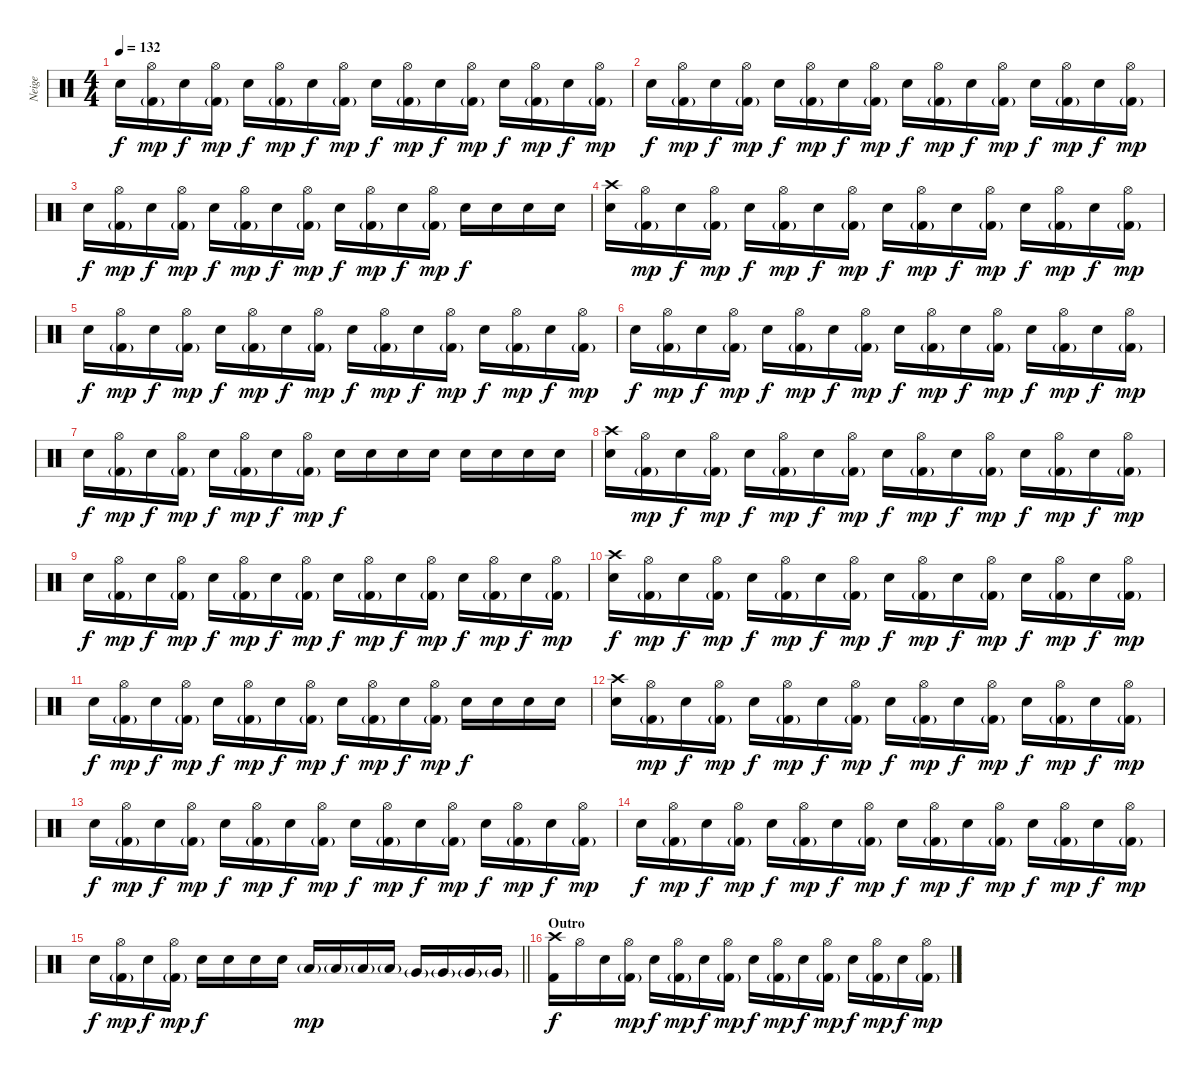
\track ("Neige" "Neige") {instrument percussion}
\staff {score}
\articulation defaults
\ts (4 4)
\tempo 132
\clef neutral
\ks c "Snare (hit) 2".16{dy f}
("Kick (hit) 2"{g} "Hi-Hat (open)").16{dy mp} "Snare (hit) 2".16{dy f} ("Kick (hit) 2"{g} "Hi-Hat (open)").16{dy mp} "Snare (hit) 2".16{dy f} ("Kick (hit) 2"{g} "Hi-Hat (open)").16{dy mp} "Snare (hit) 2".16{dy f} ("Kick (hit) 2"{g} "Hi-Hat (open)").16{dy mp} "Snare (hit) 2".16{dy f} ("Kick (hit) 2"{g} "Hi-Hat (open)").16{dy mp} "Snare (hit) 2".16{dy f} ("Kick (hit) 2"{g} "Hi-Hat (open)").16{dy mp} "Snare (hit) 2".16{dy f} ("Kick (hit) 2"{g} "Hi-Hat (open)").16{dy mp} "Snare (hit) 2".16{dy f} ("Kick (hit) 2"{g} "Hi-Hat (open)").16{dy mp} |
"Snare (hit) 2".16{dy f} ("Kick (hit) 2"{g} "Hi-Hat (open)").16{dy mp} "Snare (hit) 2".16{dy f} ("Kick (hit) 2"{g} "Hi-Hat (open)").16{dy mp} "Snare (hit) 2".16{dy f} ("Kick (hit) 2"{g} "Hi-Hat (open)").16{dy mp} "Snare (hit) 2".16{dy f} ("Kick (hit) 2"{g} "Hi-Hat (open)").16{dy mp} "Snare (hit) 2".16{dy f} ("Kick (hit) 2"{g} "Hi-Hat (open)").16{dy mp} "Snare (hit) 2".16{dy f} ("Kick (hit) 2"{g} "Hi-Hat (open)").16{dy mp} "Snare (hit) 2".16{dy f} ("Kick (hit) 2"{g} "Hi-Hat (open)").16{dy mp} "Snare (hit) 2".16{dy f} ("Kick (hit) 2"{g} "Hi-Hat (open)").16{dy mp} |
"Snare (hit) 2".16{dy f} ("Kick (hit) 2"{g} "Hi-Hat (open)").16{dy mp} "Snare (hit) 2".16{dy f} ("Kick (hit) 2"{g} "Hi-Hat (open)").16{dy mp} "Snare (hit) 2".16{dy f} ("Kick (hit) 2"{g} "Hi-Hat (open)").16{dy mp} "Snare (hit) 2".16{dy f} ("Kick (hit) 2"{g} "Hi-Hat (open)").16{dy mp} "Snare (hit) 2".16{dy f} ("Kick (hit) 2"{g} "Hi-Hat (open)").16{dy mp} "Snare (hit) 2".16{dy f} ("Kick (hit) 2"{g} "Hi-Hat (open)").16{dy mp} "Snare (hit) 2".16{dy f} "Snare (hit) 2".16 "Snare (hit) 2".16 "Snare (hit) 2".16 |
("Snare (hit) 2" "Crash high (hit)").16 ("Kick (hit) 2"{g} "Hi-Hat (open)").16{dy mp} "Snare (hit) 2".16{dy f} ("Kick (hit) 2"{g} "Hi-Hat (open)").16{dy mp} "Snare (hit) 2".16{dy f} ("Kick (hit) 2"{g} "Hi-Hat (open)").16{dy mp} "Snare (hit) 2".16{dy f} ("Kick (hit) 2"{g} "Hi-Hat (open)").16{dy mp} "Snare (hit) 2".16{dy f} ("Kick (hit) 2"{g} "Hi-Hat (open)").16{dy mp} "Snare (hit) 2".16{dy f} ("Kick (hit) 2"{g} "Hi-Hat (open)").16{dy mp} "Snare (hit) 2".16{dy f} ("Kick (hit) 2"{g} "Hi-Hat (open)").16{dy mp} "Snare (hit) 2".16{dy f} ("Kick (hit) 2"{g} "Hi-Hat (open)").16{dy mp} |
"Snare (hit) 2".16{dy f} ("Kick (hit) 2"{g} "Hi-Hat (open)").16{dy mp} "Snare (hit) 2".16{dy f} ("Kick (hit) 2"{g} "Hi-Hat (open)").16{dy mp} "Snare (hit) 2".16{dy f} ("Kick (hit) 2"{g} "Hi-Hat (open)").16{dy mp} "Snare (hit) 2".16{dy f} ("Kick (hit) 2"{g} "Hi-Hat (open)").16{dy mp} "Snare (hit) 2".16{dy f} ("Kick (hit) 2"{g} "Hi-Hat (open)").16{dy mp} "Snare (hit) 2".16{dy f} ("Kick (hit) 2"{g} "Hi-Hat (open)").16{dy mp} "Snare (hit) 2".16{dy f} ("Kick (hit) 2"{g} "Hi-Hat (open)").16{dy mp} "Snare (hit) 2".16{dy f} ("Kick (hit) 2"{g} "Hi-Hat (open)").16{dy mp} |
"Snare (hit) 2".16{dy f} ("Kick (hit) 2"{g} "Hi-Hat (open)").16{dy mp} "Snare (hit) 2".16{dy f} ("Kick (hit) 2"{g} "Hi-Hat (open)").16{dy mp} "Snare (hit) 2".16{dy f} ("Kick (hit) 2"{g} "Hi-Hat (open)").16{dy mp} "Snare (hit) 2".16{dy f} ("Kick (hit) 2"{g} "Hi-Hat (open)").16{dy mp} "Snare (hit) 2".16{dy f} ("Kick (hit) 2"{g} "Hi-Hat (open)").16{dy mp} "Snare (hit) 2".16{dy f} ("Kick (hit) 2"{g} "Hi-Hat (open)").16{dy mp} "Snare (hit) 2".16{dy f} ("Kick (hit) 2"{g} "Hi-Hat (open)").16{dy mp} "Snare (hit) 2".16{dy f} ("Kick (hit) 2"{g} "Hi-Hat (open)").16{dy mp} |
"Snare (hit) 2".16{dy f} ("Kick (hit) 2"{g} "Hi-Hat (open)").16{dy mp} "Snare (hit) 2".16{dy f} ("Kick (hit) 2"{g} "Hi-Hat (open)").16{dy mp} "Snare (hit) 2".16{dy f} ("Kick (hit) 2"{g} "Hi-Hat (open)").16{dy mp} "Snare (hit) 2".16{dy f} ("Kick (hit) 2"{g} "Hi-Hat (open)").16{dy mp} "Snare (hit) 2".16{dy f} "Snare (hit) 2".16 "Snare (hit) 2".16 "Snare (hit) 2".16 "Snare (hit) 2".16 "Snare (hit) 2".16 "Snare (hit) 2".16 "Snare (hit) 2".16 |
("Snare (hit) 2" "Crash high (hit)").16 ("Kick (hit) 2"{g} "Hi-Hat (open)").16{dy mp} "Snare (hit) 2".16{dy f} ("Kick (hit) 2"{g} "Hi-Hat (open)").16{dy mp} "Snare (hit) 2".16{dy f} ("Kick (hit) 2"{g} "Hi-Hat (open)").16{dy mp} "Snare (hit) 2".16{dy f} ("Kick (hit) 2"{g} "Hi-Hat (open)").16{dy mp} "Snare (hit) 2".16{dy f} ("Kick (hit) 2"{g} "Hi-Hat (open)").16{dy mp} "Snare (hit) 2".16{dy f} ("Kick (hit) 2"{g} "Hi-Hat (open)").16{dy mp} "Snare (hit) 2".16{dy f} ("Kick (hit) 2"{g} "Hi-Hat (open)").16{dy mp} "Snare (hit) 2".16{dy f} ("Kick (hit) 2"{g} "Hi-Hat (open)").16{dy mp} |
"Snare (hit) 2".16{dy f} ("Kick (hit) 2"{g} "Hi-Hat (open)").16{dy mp} "Snare (hit) 2".16{dy f} ("Kick (hit) 2"{g} "Hi-Hat (open)").16{dy mp} "Snare (hit) 2".16{dy f} ("Kick (hit) 2"{g} "Hi-Hat (open)").16{dy mp} "Snare (hit) 2".16{dy f} ("Kick (hit) 2"{g} "Hi-Hat (open)").16{dy mp} "Snare (hit) 2".16{dy f} ("Kick (hit) 2"{g} "Hi-Hat (open)").16{dy mp} "Snare (hit) 2".16{dy f} ("Kick (hit) 2"{g} "Hi-Hat (open)").16{dy mp} "Snare (hit) 2".16{dy f} ("Kick (hit) 2"{g} "Hi-Hat (open)").16{dy mp} "Snare (hit) 2".16{dy f} ("Kick (hit) 2"{g} "Hi-Hat (open)").16{dy mp} |
("Snare (hit) 2" "Crash high (hit)").16{dy f} ("Kick (hit) 2"{g} "Hi-Hat (open)").16{dy mp} "Snare (hit) 2".16{dy f} ("Kick (hit) 2"{g} "Hi-Hat (open)").16{dy mp} "Snare (hit) 2".16{dy f} ("Kick (hit) 2"{g} "Hi-Hat (open)").16{dy mp} "Snare (hit) 2".16{dy f} ("Kick (hit) 2"{g} "Hi-Hat (open)").16{dy mp} "Snare (hit) 2".16{dy f} ("Kick (hit) 2"{g} "Hi-Hat (open)").16{dy mp} "Snare (hit) 2".16{dy f} ("Kick (hit) 2"{g} "Hi-Hat (open)").16{dy mp} "Snare (hit) 2".16{dy f} ("Kick (hit) 2"{g} "Hi-Hat (open)").16{dy mp} "Snare (hit) 2".16{dy f} ("Kick (hit) 2"{g} "Hi-Hat (open)").16{dy mp} |
"Snare (hit) 2".16{dy f} ("Kick (hit) 2"{g} "Hi-Hat (open)").16{dy mp} "Snare (hit) 2".16{dy f} ("Kick (hit) 2"{g} "Hi-Hat (open)").16{dy mp} "Snare (hit) 2".16{dy f} ("Kick (hit) 2"{g} "Hi-Hat (open)").16{dy mp} "Snare (hit) 2".16{dy f} ("Kick (hit) 2"{g} "Hi-Hat (open)").16{dy mp} "Snare (hit) 2".16{dy f} ("Kick (hit) 2"{g} "Hi-Hat (open)").16{dy mp} "Snare (hit) 2".16{dy f} ("Kick (hit) 2"{g} "Hi-Hat (open)").16{dy mp} "Snare (hit) 2".16{dy f} "Snare (hit) 2".16 "Snare (hit) 2".16 "Snare (hit) 2".16 |
("Snare (hit) 2" "Crash high (hit)").16 ("Kick (hit) 2"{g} "Hi-Hat (open)").16{dy mp} "Snare (hit) 2".16{dy f} ("Kick (hit) 2"{g} "Hi-Hat (open)").16{dy mp} "Snare (hit) 2".16{dy f} ("Kick (hit) 2"{g} "Hi-Hat (open)").16{dy mp} "Snare (hit) 2".16{dy f} ("Kick (hit) 2"{g} "Hi-Hat (open)").16{dy mp} "Snare (hit) 2".16{dy f} ("Kick (hit) 2"{g} "Hi-Hat (open)").16{dy mp} "Snare (hit) 2".16{dy f} ("Kick (hit) 2"{g} "Hi-Hat (open)").16{dy mp} "Snare (hit) 2".16{dy f} ("Kick (hit) 2"{g} "Hi-Hat (open)").16{dy mp} "Snare (hit) 2".16{dy f} ("Kick (hit) 2"{g} "Hi-Hat (open)").16{dy mp} |
"Snare (hit) 2".16{dy f} ("Kick (hit) 2"{g} "Hi-Hat (open)").16{dy mp} "Snare (hit) 2".16{dy f} ("Kick (hit) 2"{g} "Hi-Hat (open)").16{dy mp} "Snare (hit) 2".16{dy f} ("Kick (hit) 2"{g} "Hi-Hat (open)").16{dy mp} "Snare (hit) 2".16{dy f} ("Kick (hit) 2"{g} "Hi-Hat (open)").16{dy mp} "Snare (hit) 2".16{dy f} ("Kick (hit) 2"{g} "Hi-Hat (open)").16{dy mp} "Snare (hit) 2".16{dy f} ("Kick (hit) 2"{g} "Hi-Hat (open)").16{dy mp} "Snare (hit) 2".16{dy f} ("Kick (hit) 2"{g} "Hi-Hat (open)").16{dy mp} "Snare (hit) 2".16{dy f} ("Kick (hit) 2"{g} "Hi-Hat (open)").16{dy mp} |
"Snare (hit) 2".16{dy f} ("Kick (hit) 2"{g} "Hi-Hat (open)").16{dy mp} "Snare (hit) 2".16{dy f} ("Kick (hit) 2"{g} "Hi-Hat (open)").16{dy mp} "Snare (hit) 2".16{dy f} ("Kick (hit) 2"{g} "Hi-Hat (open)").16{dy mp} "Snare (hit) 2".16{dy f} ("Kick (hit) 2"{g} "Hi-Hat (open)").16{dy mp} "Snare (hit) 2".16{dy f} ("Kick (hit) 2"{g} "Hi-Hat (open)").16{dy mp} "Snare (hit) 2".16{dy f} ("Kick (hit) 2"{g} "Hi-Hat (open)").16{dy mp} "Snare (hit) 2".16{dy f} ("Kick (hit) 2"{g} "Hi-Hat (open)").16{dy mp} "Snare (hit) 2".16{dy f} ("Kick (hit) 2"{g} "Hi-Hat (open)").16{dy mp} |
\barLineRight lightlight "Snare (hit) 2".16{dy f}
("Kick (hit) 2"{g} "Hi-Hat (open)").16{dy mp} "Snare (hit) 2".16{dy f} ("Kick (hit) 2"{g} "Hi-Hat (open)").16{dy mp} "Snare (hit) 2".16{dy f} "Snare (hit) 2".16 "Snare (hit) 2".16 "Snare (hit) 2".16 "Low Tom (hit)"{g}.16{dy mp} "Low Tom (hit)"{g}.16 "Low Tom (hit)"{g}.16 "Low Tom (hit)"{g}.16 "Very Low Tom (hit)"{g}.16 "Very Low Tom (hit)"{g}.16 "Very Low Tom (hit)"{g}.16 "Very Low Tom (hit)"{g}.16 |
\section ("" "Outro")
("Kick (hit) 2" "Crash high (hit)").16{dy f} "Hi-Hat (open)".16 "Snare (hit) 2".16 ("Kick (hit) 2"{g} "Hi-Hat (open)").16{dy mp} "Snare (hit) 2".16{dy f} ("Kick (hit) 2"{g} "Hi-Hat (open)").16{dy mp} "Snare (hit) 2".16{dy f} ("Kick (hit) 2"{g} "Hi-Hat (open)").16{dy mp} "Snare (hit) 2".16{dy f} ("Kick (hit) 2"{g} "Hi-Hat (open)").16{dy mp} "Snare (hit) 2".16{dy f} ("Kick (hit) 2"{g} "Hi-Hat (open)").16{dy mp} "Snare (hit) 2".16{dy f} ("Kick (hit) 2"{g} "Hi-Hat (open)").16{dy mp} "Snare (hit) 2".16{dy f} ("Kick (hit) 2"{g} "Hi-Hat (open)").16{dy mp}
